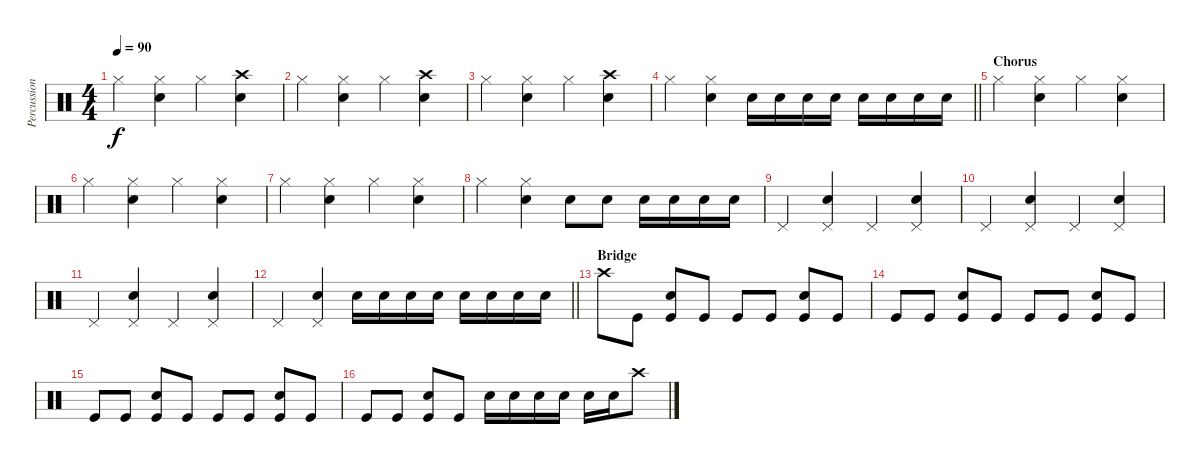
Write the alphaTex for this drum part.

\track ("Percussion" "Percussion") {instrument percussion}
\staff {score}
\articulation defaults
\ts (4 4)
\tempo 90
\clef neutral
\ks c "Hi-Hat (closed)".4{dy f}
("Hi-Hat (closed)" "Electric Snare (hit)").4 "Hi-Hat (closed)".4 ("Crash high (hit)" "Electric Snare (hit)").4 |
"Hi-Hat (closed)".4 ("Hi-Hat (closed)" "Electric Snare (hit)").4 "Hi-Hat (closed)".4 ("Crash high (hit)" "Electric Snare (hit)").4 |
"Hi-Hat (closed)".4 ("Hi-Hat (closed)" "Electric Snare (hit)").4 "Hi-Hat (closed)".4 ("Crash high (hit)" "Electric Snare (hit)").4 |
\barLineRight lightlight "Hi-Hat (closed)".4
("Hi-Hat (closed)" "Electric Snare (hit)").4 "Snare (hit) 2".16 "Electric Snare (hit)".16 "Snare (hit) 2".16 "Electric Snare (hit)".16 "Snare (hit) 2".16 "Electric Snare (hit)".16 "Snare (hit) 2".16 "Electric Snare (hit)".16 |
\section ("" "Chorus")
"Hi-Hat (closed)".4 ("Hi-Hat (closed)" "Snare (hit) 2").4 "Hi-Hat (closed)".4 ("Hi-Hat (closed)" "Snare (hit) 2").4 |
"Hi-Hat (closed)".4 ("Hi-Hat (closed)" "Snare (hit) 2").4 "Hi-Hat (closed)".4 ("Hi-Hat (closed)" "Snare (hit) 2").4 |
"Hi-Hat (closed)".4 ("Hi-Hat (closed)" "Snare (hit) 2").4 "Hi-Hat (closed)".4 ("Hi-Hat (closed)" "Snare (hit) 2").4 |
"Hi-Hat (closed)".4 ("Hi-Hat (closed)" "Snare (hit) 2").4 "Snare (hit) 2".8 "Electric Snare (hit)".8 "Snare (hit) 2".16 "Electric Snare (hit)".16 "Snare (hit) 2".16 "Electric Snare (hit)".16 |
"Pedal Hi-Hat (hit)".4 ("Pedal Hi-Hat (hit)" "Electric Snare (hit)").4 "Pedal Hi-Hat (hit)".4 ("Pedal Hi-Hat (hit)" "Electric Snare (hit)").4 |
"Pedal Hi-Hat (hit)".4 ("Pedal Hi-Hat (hit)" "Electric Snare (hit)").4 "Pedal Hi-Hat (hit)".4 ("Pedal Hi-Hat (hit)" "Electric Snare (hit)").4 |
"Pedal Hi-Hat (hit)".4 ("Pedal Hi-Hat (hit)" "Electric Snare (hit)").4 "Pedal Hi-Hat (hit)".4 ("Pedal Hi-Hat (hit)" "Electric Snare (hit)").4 |
\barLineRight lightlight "Pedal Hi-Hat (hit)".4
("Pedal Hi-Hat (hit)" "Electric Snare (hit)").4 "Snare (hit) 2".16 "Electric Snare (hit)".16 "Snare (hit) 2".16 "Electric Snare (hit)".16 "Snare (hit) 2".16 "Electric Snare (hit)".16 "Snare (hit) 2".16 "Electric Snare (hit)".16 |
\section ("" "Bridge")
"Crash high (hit)".8 "Kick (hit)".8 ("Kick (hit)" "Snare (hit) 2").8 "Kick (hit)".8 "Kick (hit)".8 "Kick (hit)".8 ("Kick (hit)" "Snare (hit) 2").8 "Kick (hit)".8 |
"Kick (hit)".8 "Kick (hit)".8 ("Kick (hit)" "Snare (hit) 2").8 "Kick (hit)".8 "Kick (hit)".8 "Kick (hit)".8 ("Kick (hit)" "Snare (hit) 2").8 "Kick (hit)".8 |
"Kick (hit)".8 "Kick (hit)".8 ("Kick (hit)" "Snare (hit) 2").8 "Kick (hit)".8 "Kick (hit)".8 "Kick (hit)".8 ("Kick (hit)" "Snare (hit) 2").8 "Kick (hit)".8 |
"Kick (hit)".8 "Kick (hit)".8 ("Kick (hit)" "Snare (hit) 2").8 "Kick (hit)".8 "Snare (hit) 2".16 "Electric Snare (hit)".16 "Snare (hit) 2".16 "Electric Snare (hit)".16 "Snare (hit) 2".16 "Electric Snare (hit)".16 "Crash high (hit)".8
